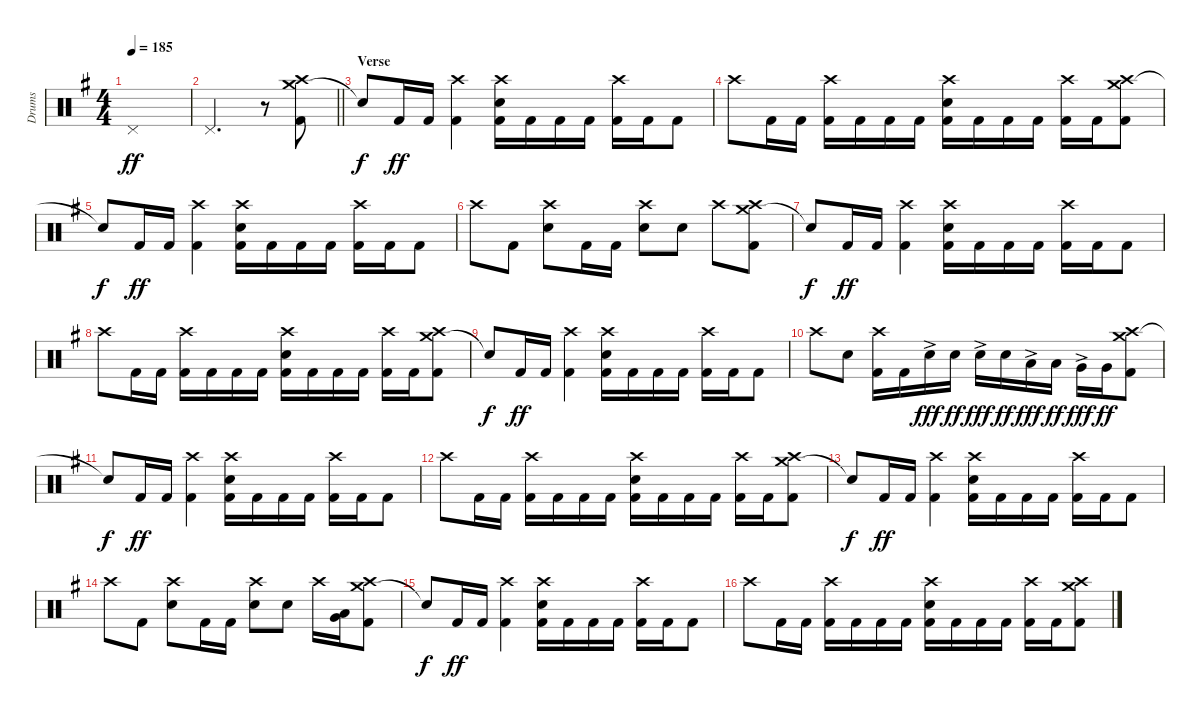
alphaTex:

\track ("Drums" "Drums") {instrument percussion}
\staff {score}
\articulation defaults
\ts (4 4)
\tempo 185
\clef neutral
\ks g "Pedal Hi-Hat (hit)".1{dy ff}
|
\barLineRight lightlight "Pedal Hi-Hat (hit)".2{d}
r.8 ("Crash medium (hit)" "Crash high (hit)" "Kick (hit) 2").8 |
\section ("" "Verse")
"Snare (hit)"{t}.8{dy f} "Kick (hit) 2".16{dy ff} "Kick (hit) 2".16 ("Crash high (hit)" "Kick (hit) 2").4 ("Crash high (hit)" "Electric Snare (hit)" "Kick (hit) 2").16 "Kick (hit) 2".16 "Kick (hit) 2".16 "Kick (hit) 2".16 ("Crash high (hit)" "Kick (hit) 2").16 "Kick (hit) 2".16 "Kick (hit) 2".8 |
"Crash high (hit)".8 "Kick (hit) 2".16 "Kick (hit) 2".16 ("Crash high (hit)" "Kick (hit) 2").16 "Kick (hit) 2".16 "Kick (hit) 2".16 "Kick (hit) 2".16 ("Crash high (hit)" "Electric Snare (hit)" "Kick (hit) 2").16 "Kick (hit) 2".16 "Kick (hit) 2".16 "Kick (hit) 2".16 ("Crash high (hit)" "Kick (hit) 2").16 "Kick (hit) 2".16 ("Crash medium (hit)" "Crash high (hit)" "Kick (hit) 2").8 |
"Snare (hit)"{t}.8{dy f} "Kick (hit) 2".16{dy ff} "Kick (hit) 2".16 ("Crash high (hit)" "Kick (hit) 2").4 ("Crash high (hit)" "Electric Snare (hit)" "Kick (hit) 2").16 "Kick (hit) 2".16 "Kick (hit) 2".16 "Kick (hit) 2".16 ("Crash high (hit)" "Kick (hit) 2").16 "Kick (hit) 2".16 "Kick (hit) 2".8 |
"Crash high (hit)".8 "Kick (hit) 2".8 ("Crash high (hit)" "Electric Snare (hit)").8 "Kick (hit) 2".16 "Kick (hit) 2".16 ("Crash high (hit)" "Electric Snare (hit)").8 "Electric Snare (hit)".8 "Crash high (hit)".8 ("Crash medium (hit)" "Crash high (hit)" "Kick (hit) 2").8 |
"Snare (hit)"{t}.8{dy f} "Kick (hit) 2".16{dy ff} "Kick (hit) 2".16 ("Crash high (hit)" "Kick (hit) 2").4 ("Crash high (hit)" "Electric Snare (hit)" "Kick (hit) 2").16 "Kick (hit) 2".16 "Kick (hit) 2".16 "Kick (hit) 2".16 ("Crash high (hit)" "Kick (hit) 2").16 "Kick (hit) 2".16 "Kick (hit) 2".8 |
"Crash high (hit)".8 "Kick (hit) 2".16 "Kick (hit) 2".16 ("Crash high (hit)" "Kick (hit) 2").16 "Kick (hit) 2".16 "Kick (hit) 2".16 "Kick (hit) 2".16 ("Crash high (hit)" "Electric Snare (hit)" "Kick (hit) 2").16 "Kick (hit) 2".16 "Kick (hit) 2".16 "Kick (hit) 2".16 ("Crash high (hit)" "Kick (hit) 2").16 "Kick (hit) 2".16 ("Crash medium (hit)" "Crash high (hit)" "Kick (hit) 2").8 |
"Snare (hit)"{t}.8{dy f} "Kick (hit) 2".16{dy ff} "Kick (hit) 2".16 ("Crash high (hit)" "Kick (hit) 2").4 ("Crash high (hit)" "Electric Snare (hit)" "Kick (hit) 2").16 "Kick (hit) 2".16 "Kick (hit) 2".16 "Kick (hit) 2".16 ("Crash high (hit)" "Kick (hit) 2").16 "Kick (hit) 2".16 "Kick (hit) 2".8 |
"Crash high (hit)".8 "Electric Snare (hit)".8 ("Crash high (hit)" "Kick (hit) 2").16 "Kick (hit) 2".16 "Electric Snare (hit)"{ac}.16{dy fff} "Electric Snare (hit)".16{dy ff} "Electric Snare (hit)"{ac}.16{dy fff} "Electric Snare (hit)".16{dy ff} "Low Tom (hit)"{ac}.16{dy fff} "Low Tom (hit)".16{dy ff} "Very Low Tom (hit)"{ac}.16{dy fff} "Very Low Tom (hit)".16{dy ff} ("Crash medium (hit)" "Crash high (hit)" "Kick (hit) 2").8 |
"Snare (hit)"{t}.8{dy f} "Kick (hit) 2".16{dy ff} "Kick (hit) 2".16 ("Crash high (hit)" "Kick (hit) 2").4 ("Crash high (hit)" "Electric Snare (hit)" "Kick (hit) 2").16 "Kick (hit) 2".16 "Kick (hit) 2".16 "Kick (hit) 2".16 ("Crash high (hit)" "Kick (hit) 2").16 "Kick (hit) 2".16 "Kick (hit) 2".8 |
"Crash high (hit)".8 "Kick (hit) 2".16 "Kick (hit) 2".16 ("Crash high (hit)" "Kick (hit) 2").16 "Kick (hit) 2".16 "Kick (hit) 2".16 "Kick (hit) 2".16 ("Crash high (hit)" "Electric Snare (hit)" "Kick (hit) 2").16 "Kick (hit) 2".16 "Kick (hit) 2".16 "Kick (hit) 2".16 ("Crash high (hit)" "Kick (hit) 2").16 "Kick (hit) 2".16 ("Crash medium (hit)" "Crash high (hit)" "Kick (hit) 2").8 |
"Snare (hit)"{t}.8{dy f} "Kick (hit) 2".16{dy ff} "Kick (hit) 2".16 ("Crash high (hit)" "Kick (hit) 2").4 ("Crash high (hit)" "Electric Snare (hit)" "Kick (hit) 2").16 "Kick (hit) 2".16 "Kick (hit) 2".16 "Kick (hit) 2".16 ("Crash high (hit)" "Kick (hit) 2").16 "Kick (hit) 2".16 "Kick (hit) 2".8 |
"Crash high (hit)".8 "Kick (hit) 2".8 ("Crash high (hit)" "Electric Snare (hit)").8 "Kick (hit) 2".16 "Kick (hit) 2".16 ("Crash high (hit)" "Electric Snare (hit)").8 "Electric Snare (hit)".8 "Crash high (hit)".16 ("Low Tom (hit)" "Very Low Tom (hit)").16{bu 60} ("Crash medium (hit)" "Crash high (hit)" "Kick (hit) 2").8 |
"Snare (hit)"{t}.8{dy f} "Kick (hit) 2".16{dy ff} "Kick (hit) 2".16 ("Crash high (hit)" "Kick (hit) 2").4 ("Crash high (hit)" "Electric Snare (hit)" "Kick (hit) 2").16 "Kick (hit) 2".16 "Kick (hit) 2".16 "Kick (hit) 2".16 ("Crash high (hit)" "Kick (hit) 2").16 "Kick (hit) 2".16 "Kick (hit) 2".8 |
"Crash high (hit)".8 "Kick (hit) 2".16 "Kick (hit) 2".16 ("Crash high (hit)" "Kick (hit) 2").16 "Kick (hit) 2".16 "Kick (hit) 2".16 "Kick (hit) 2".16 ("Crash high (hit)" "Electric Snare (hit)" "Kick (hit) 2").16 "Kick (hit) 2".16 "Kick (hit) 2".16 "Kick (hit) 2".16 ("Crash high (hit)" "Kick (hit) 2").16 "Kick (hit) 2".16 ("Crash medium (hit)" "Crash high (hit)" "Kick (hit) 2").8
